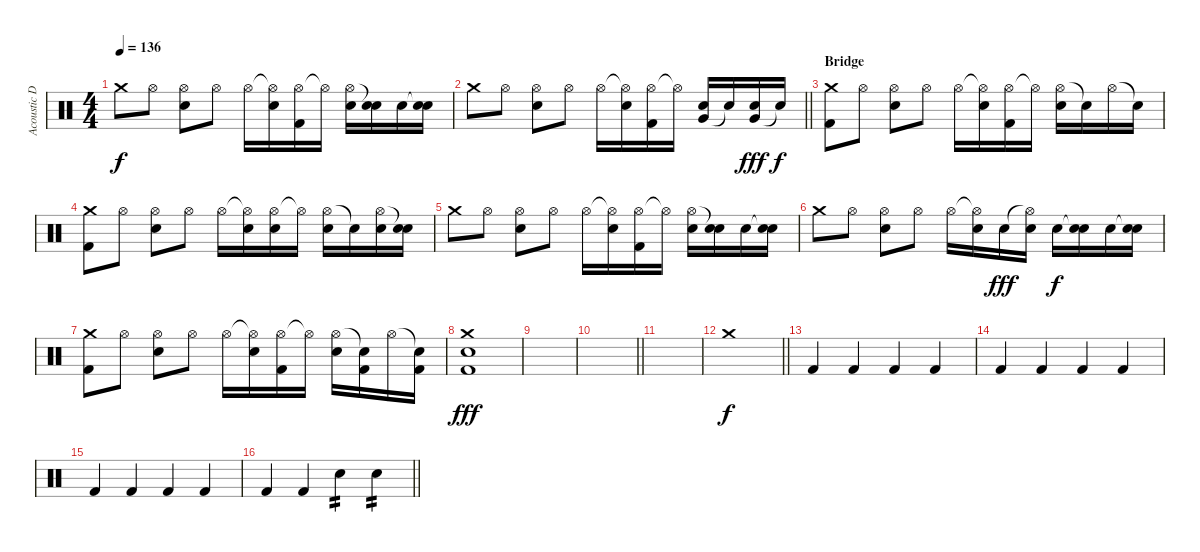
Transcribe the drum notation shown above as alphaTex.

\track ("Acoustic Drums" "Acoustic D") {instrument percussion}
\staff {score}
\articulation defaults
\ts (4 4)
\tempo 136
\clef neutral
\ks c "Crash medium (hit)".8{dy f} "Hi-Hat (open)".8
("Hi-Hat (open)" "Snare (hit) 2").8 "Hi-Hat (open)".8 "Hi-Hat (open)".16 ("Hi-Hat (open)"{t} "Snare (hit) 2").16 ("Hi-Hat (open)" "Kick (hit) 2").16 "Hi-Hat (open)"{t}.16 ("Hi-Hat (open)" "Snare (hit) 2").16 ("Snare (hit)"{t} "Snare (hit) 2").16 "Snare (hit) 2".16 ("Snare (hit)"{t} "Snare (hit) 2").16 |
\barLineRight lightlight "Crash medium (hit)".8 "Hi-Hat (open)".8
("Hi-Hat (open)" "Snare (hit) 2").8 "Hi-Hat (open)".8 "Hi-Hat (open)".16 ("Hi-Hat (open)"{t} "Snare (hit) 2").16 ("Hi-Hat (open)" "Kick (hit) 2").16 "Hi-Hat (open)"{t}.16 ("Very Low Tom (hit)" "Snare (hit) 2").16 "Snare (hit)"{t}.16 ("Very Low Tom (hit)" "Snare (hit) 2").16{dy fff} "Snare (hit)"{t}.16{dy f} |
\section ("" "Bridge")
("Crash medium (hit)" "Kick (hit) 2").8 "Hi-Hat (open)".8 ("Hi-Hat (open)" "Snare (hit) 2").8 "Hi-Hat (open)".8 "Hi-Hat (open)".16 ("Hi-Hat (open)"{t} "Snare (hit) 2").16 ("Hi-Hat (open)" "Kick (hit) 2").16 "Hi-Hat (open)"{t}.16 ("Hi-Hat (open)" "Snare (hit) 2").16 "Snare (hit)"{t}.16 "Hi-Hat (open)".16 "Snare (hit)"{t}.16 |
("Crash medium (hit)" "Kick (hit) 2").8 "Hi-Hat (open)".8 ("Hi-Hat (open)" "Snare (hit) 2").8 "Hi-Hat (open)".8 "Hi-Hat (open)".16 ("Hi-Hat (open)"{t} "Snare (hit) 2").16 ("Hi-Hat (open)" "Snare (hit) 2").16 "Hi-Hat (open)"{t}.16 ("Hi-Hat (open)" "Snare (hit) 2").16 "Snare (hit)"{t}.16 ("Hi-Hat (open)" "Snare (hit) 2").16 ("Snare (hit)"{t} "Snare (hit) 2").16 |
"Crash medium (hit)".8 "Hi-Hat (open)".8 ("Hi-Hat (open)" "Snare (hit) 2").8 "Hi-Hat (open)".8 "Hi-Hat (open)".16 ("Hi-Hat (open)"{t} "Snare (hit) 2").16 ("Hi-Hat (open)" "Kick (hit) 2").16 "Hi-Hat (open)"{t}.16 ("Hi-Hat (open)" "Snare (hit) 2").16 ("Snare (hit)"{t} "Snare (hit) 2").16 "Snare (hit) 2".16 ("Snare (hit)"{t} "Snare (hit) 2").16 |
"Crash medium (hit)".8 "Hi-Hat (open)".8 ("Hi-Hat (open)" "Snare (hit) 2").8 "Hi-Hat (open)".8 "Hi-Hat (open)".16 ("Hi-Hat (open)"{t} "Snare (hit) 2").16 "Snare (hit) 2".16{dy fff} ("Hi-Hat (open)"{t} "Snare (hit) 2").16 "Snare (hit) 2".16{dy f} ("Snare (hit)"{t} "Snare (hit) 2").16 "Snare (hit) 2".16 ("Snare (hit)"{t} "Snare (hit) 2").16 |
("Crash medium (hit)" "Kick (hit) 2").8 "Hi-Hat (open)".8 ("Hi-Hat (open)" "Snare (hit) 2").8 "Hi-Hat (open)".8 "Hi-Hat (open)".16 ("Hi-Hat (open)"{t} "Snare (hit) 2").16 ("Hi-Hat (open)" "Kick (hit) 2").16 "Hi-Hat (open)"{t}.16 ("Hi-Hat (open)" "Snare (hit) 2").16 ("Snare (hit)"{t} "Kick (hit) 2").16 "Hi-Hat (open)".16 ("Snare (hit)"{t} "Kick (hit) 2").16 |
("Crash medium (hit)" "Snare (hit) 2" "Kick (hit) 2").1{dy fff} |
|
\barLineRight lightlight
|
|
\barLineRight lightlight "Crash medium (hit)".1{dy f volume 16}
|
"Kick (hit) 2".4 "Kick (hit) 2".4 "Kick (hit) 2".4 "Kick (hit) 2".4 |
"Kick (hit) 2".4 "Kick (hit) 2".4 "Kick (hit) 2".4 "Kick (hit) 2".4 |
"Kick (hit) 2".4 "Kick (hit) 2".4 "Kick (hit) 2".4 "Kick (hit) 2".4 |
\barLineRight lightlight "Kick (hit) 2".4 "Kick (hit) 2".4 "Snare (hit) 2".4{tp 2} "Snare (hit) 2".4{tp 2}
